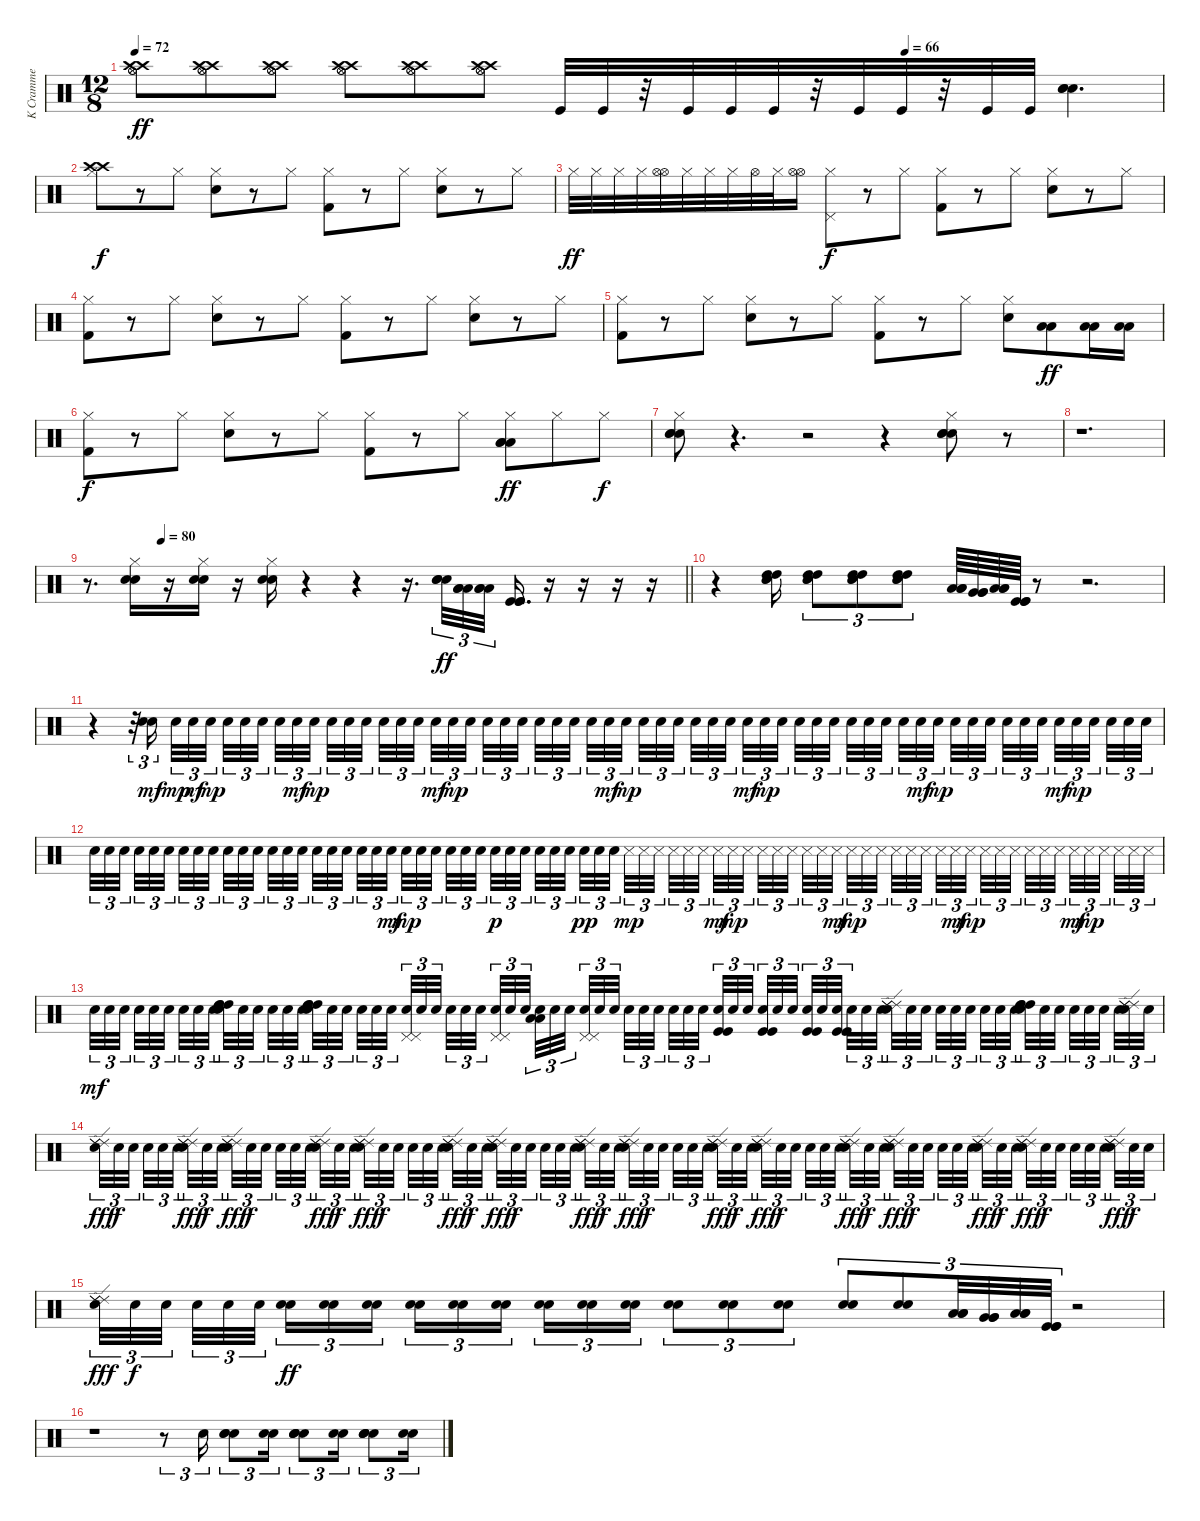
\track ("K Cramme" "K Cramme") {instrument percussion}
\staff {score}
\articulation defaults
\ts (12 8)
\tempo 72
\tempo (66 0.75)
\clef neutral
\ks c
("Crash high (hit)" "Crash high (hit)" "Hi-Hat (open)" "Hi-Hat (open)").8{dy ff} ("Crash high (hit)" "Crash high (hit)" "Hi-Hat (open)" "Hi-Hat (open)").8 ("Crash high (hit)" "Crash high (hit)" "Hi-Hat (open)" "Hi-Hat (open)").8 ("Crash high (hit)" "Crash high (hit)" "Hi-Hat (open)" "Hi-Hat (open)").8 ("Crash high (hit)" "Crash high (hit)" "Hi-Hat (open)" "Hi-Hat (open)").8 ("Crash high (hit)" "Crash high (hit)" "Hi-Hat (open)" "Hi-Hat (open)").8 "Kick (hit)".32 "Kick (hit)".32 r.32 "Kick (hit)".32 "Kick (hit)".32 "Kick (hit)".32 r.32 "Kick (hit)".32 "Kick (hit)".32 r.32 "Kick (hit)".32 "Kick (hit)".32 ("Snare (hit) 2" "Snare (hit) 2" "Snare (hit) 2").4{d} |
("Crash high (hit)" "Crash high (hit)" "Hi-Hat (closed)").8{dy f} r.8 "Hi-Hat (closed)".8 ("Snare (hit) 2" "Hi-Hat (closed)").8 r.8 "Hi-Hat (closed)".8 ("Kick (hit) 2" "Hi-Hat (closed)").8 r.8 "Hi-Hat (closed)".8 ("Snare (hit) 2" "Hi-Hat (closed)").8 r.8 "Hi-Hat (closed)".8 |
"Hi-Hat (closed)".32{dy ff} "Hi-Hat (closed)".32 "Hi-Hat (closed)".32 "Hi-Hat (closed)".32 ("Hi-Hat (open)" "Hi-Hat (open)").32 "Hi-Hat (closed)".32 "Hi-Hat (closed)".32 "Hi-Hat (closed)".32 "Hi-Hat (open)".32 "Hi-Hat (closed)".32 ("Hi-Hat (open)" "Hi-Hat (open)").16 ("Pedal Hi-Hat (hit)" "Hi-Hat (closed)").8{dy f} r.8 "Hi-Hat (closed)".8 ("Kick (hit) 2" "Hi-Hat (closed)").8 r.8 "Hi-Hat (closed)".8 ("Snare (hit) 2" "Hi-Hat (closed)").8 r.8 "Hi-Hat (closed)".8 |
("Kick (hit) 2" "Hi-Hat (closed)").8 r.8 "Hi-Hat (closed)".8 ("Snare (hit) 2" "Hi-Hat (closed)").8 r.8 "Hi-Hat (closed)".8 ("Kick (hit) 2" "Hi-Hat (closed)").8 r.8 "Hi-Hat (closed)".8 ("Snare (hit) 2" "Hi-Hat (closed)").8 r.8 "Hi-Hat (closed)".8 |
("Kick (hit) 2" "Hi-Hat (closed)").8 r.8 "Hi-Hat (closed)".8 ("Snare (hit) 2" "Hi-Hat (closed)").8 r.8 "Hi-Hat (closed)".8 ("Kick (hit) 2" "Hi-Hat (closed)").8 r.8 "Hi-Hat (closed)".8 ("Snare (hit) 2" "Hi-Hat (closed)").8 ("Low Tom (hit)" "Low Tom (hit)").8{dy ff} ("Low Tom (hit)" "Low Tom (hit)").16 ("Low Tom (hit)" "Low Tom (hit)").16 |
("Kick (hit) 2" "Hi-Hat (closed)").8{dy f} r.8 "Hi-Hat (closed)".8 ("Snare (hit) 2" "Hi-Hat (closed)").8 r.8 "Hi-Hat (closed)".8 ("Kick (hit) 2" "Hi-Hat (closed)").8 r.8 "Hi-Hat (closed)".8 ("Low Tom (hit)" "Low Tom (hit)" "Low Tom (hit)" "Hi-Hat (closed)").8{dy ff} "Hi-Hat (closed)".8 "Hi-Hat (closed)".8{dy f} |
("Snare (hit) 2" "Snare (hit) 2" "Snare (hit) 2" "Hi-Hat (closed)").8 r.4{d} r.2 r.4 ("Snare (hit) 2" "Snare (hit) 2" "Snare (hit) 2" "Hi-Hat (closed)").8 r.8 |
r.1{d} |
\tempo (80 0.125)
\barLineRight lightlight
r.8{d} ("Snare (hit) 2" "Snare (hit) 2" "Hi-Hat (closed)").16 r.16 ("Snare (hit) 2" "Snare (hit) 2" "Hi-Hat (closed)").16 r.16 ("Snare (hit) 2" "Snare (hit) 2" "Hi-Hat (closed)").16 r.4 r.4 r.16{d} ("Snare (hit) 2" "Snare (hit) 2" "Snare (hit) 2").32{tu (3 2) dy ff volume 16} ("Low Floor Tom (hit)" "Low Floor Tom (hit)" "Low Floor Tom (hit)").32{tu (3 2)} ("Low Floor Tom (hit)" "Low Floor Tom (hit)" "Low Floor Tom (hit)").32{tu (3 2)} ("Kick (hit)" "Kick (hit)" "Kick (hit)").16{d} r.16 r.16 r.16 r.16 |
r.4 ("High Tom (hit)" "High Tom (hit)" "Snare (hit) 2" "Snare (hit) 2").16 ("High Tom (hit)" "High Tom (hit)" "Snare (hit) 2" "Snare (hit) 2").8{tu (3 2)} ("High Tom (hit)" "High Tom (hit)" "Snare (hit) 2" "Snare (hit) 2").8{tu (3 2)} ("High Tom (hit)" "High Tom (hit)" "Snare (hit) 2" "Snare (hit) 2").8{tu (3 2)} ("Low Tom (hit)" "Low Tom (hit)" "Low Tom (hit)").64 ("Very Low Tom (hit)" "Very Low Tom (hit)" "Very Low Tom (hit)").64 ("Low Floor Tom (hit)" "Low Floor Tom (hit)" "Low Floor Tom (hit)").64 ("Kick (hit)" "Kick (hit)" "Kick (hit)").64 r.8 r.2{d} |
r.4 r.32{tu (3 2)} ("Snare (hit) 2" "Snare (hit) 2").16{tu (3 2) dy mf beam splitsecondary} "Snare (hit) 2".32{tu (3 2) dy mp} "Snare (hit) 2".32{tu (3 2) dy mf} "Snare (hit) 2".32{tu (3 2) dy mp} "Snare (hit) 2".32{tu (3 2)} "Snare (hit) 2".32{tu (3 2)} "Snare (hit) 2".32{tu (3 2) beam splitsecondary} "Snare (hit) 2".32{tu (3 2)} "Snare (hit) 2".32{tu (3 2) dy mf} "Snare (hit) 2".32{tu (3 2) dy mp beam splitsecondary} "Snare (hit) 2".32{tu (3 2)} "Snare (hit) 2".32{tu (3 2)} "Snare (hit) 2".32{tu (3 2) beam splitsecondary} "Snare (hit) 2".32{tu (3 2)} "Snare (hit) 2".32{tu (3 2)} "Snare (hit) 2".32{tu (3 2) beam splitsecondary} "Snare (hit) 2".32{tu (3 2) dy mf} "Snare (hit) 2".32{tu (3 2) dy mp} "Snare (hit) 2".32{tu (3 2) beam splitsecondary} "Snare (hit) 2".32{tu (3 2)} "Snare (hit) 2".32{tu (3 2)} "Snare (hit) 2".32{tu (3 2)} "Snare (hit) 2".32{tu (3 2)} "Snare (hit) 2".32{tu (3 2)} "Snare (hit) 2".32{tu (3 2) beam splitsecondary} "Snare (hit) 2".32{tu (3 2)} "Snare (hit) 2".32{tu (3 2) dy mf} "Snare (hit) 2".32{tu (3 2) dy mp beam splitsecondary} "Snare (hit) 2".32{tu (3 2)} "Snare (hit) 2".32{tu (3 2)} "Snare (hit) 2".32{tu (3 2) beam splitsecondary} "Snare (hit) 2".32{tu (3 2)} "Snare (hit) 2".32{tu (3 2)} "Snare (hit) 2".32{tu (3 2) beam splitsecondary} "Snare (hit) 2".32{tu (3 2) dy mf} "Snare (hit) 2".32{tu (3 2) dy mp} "Snare (hit) 2".32{tu (3 2) beam splitsecondary} "Snare (hit) 2".32{tu (3 2)} "Snare (hit) 2".32{tu (3 2)} "Snare (hit) 2".32{tu (3 2)} "Snare (hit) 2".32{tu (3 2)} "Snare (hit) 2".32{tu (3 2)} "Snare (hit) 2".32{tu (3 2) beam splitsecondary} "Snare (hit) 2".32{tu (3 2)} "Snare (hit) 2".32{tu (3 2) dy mf} "Snare (hit) 2".32{tu (3 2) dy mp beam splitsecondary} "Snare (hit) 2".32{tu (3 2)} "Snare (hit) 2".32{tu (3 2)} "Snare (hit) 2".32{tu (3 2) beam splitsecondary} "Snare (hit) 2".32{tu (3 2)} "Snare (hit) 2".32{tu (3 2)} "Snare (hit) 2".32{tu (3 2) beam splitsecondary} "Snare (hit) 2".32{tu (3 2) dy mf} "Snare (hit) 2".32{tu (3 2) dy mp} "Snare (hit) 2".32{tu (3 2) beam splitsecondary} "Snare (hit) 2".32{tu (3 2)} "Snare (hit) 2".32{tu (3 2)} "Snare (hit) 2".32{tu (3 2)} |
"Snare (hit) 2".32{tu (3 2)} "Snare (hit) 2".32{tu (3 2)} "Snare (hit) 2".32{tu (3 2) beam splitsecondary} "Snare (hit) 2".32{tu (3 2)} "Snare (hit) 2".32{tu (3 2)} "Snare (hit) 2".32{tu (3 2) beam splitsecondary} "Snare (hit) 2".32{tu (3 2)} "Snare (hit) 2".32{tu (3 2)} "Snare (hit) 2".32{tu (3 2) beam splitsecondary} "Snare (hit) 2".32{tu (3 2)} "Snare (hit) 2".32{tu (3 2)} "Snare (hit) 2".32{tu (3 2) beam splitsecondary} "Snare (hit) 2".32{tu (3 2)} "Snare (hit) 2".32{tu (3 2)} "Snare (hit) 2".32{tu (3 2) beam splitsecondary} "Snare (hit) 2".32{tu (3 2)} "Snare (hit) 2".32{tu (3 2)} "Snare (hit) 2".32{tu (3 2)} "Snare (hit) 2".32{tu (3 2)} "Snare (hit) 2".32{tu (3 2)} "Snare (hit) 2".32{tu (3 2) dy mf beam splitsecondary} "Snare (hit) 2".32{tu (3 2) dy mp} "Snare (hit) 2".32{tu (3 2)} "Snare (hit) 2".32{tu (3 2) beam splitsecondary} "Snare (hit) 2".32{tu (3 2)} "Snare (hit) 2".32{tu (3 2)} "Snare (hit) 2".32{tu (3 2) beam splitsecondary} "Snare (hit) 2".32{tu (3 2) dy p} "Snare (hit) 2".32{tu (3 2)} "Snare (hit) 2".32{tu (3 2) beam splitsecondary} "Snare (hit) 2".32{tu (3 2)} "Snare (hit) 2".32{tu (3 2)} "Snare (hit) 2".32{tu (3 2) beam splitsecondary} "Snare (hit) 2".32{tu (3 2) dy pp} "Snare (hit) 2".32{tu (3 2)} "Snare (hit) 2".32{tu (3 2)} "Snare (side stick) 3".32{tu (3 2) dy mp} "Snare (side stick) 3".32{tu (3 2)} "Snare (side stick) 3".32{tu (3 2) beam splitsecondary} "Snare (side stick) 3".32{tu (3 2)} "Snare (side stick) 3".32{tu (3 2)} "Snare (side stick) 3".32{tu (3 2) beam splitsecondary} "Snare (side stick) 3".32{tu (3 2) dy mf} "Snare (side stick) 3".32{tu (3 2) dy mp} "Snare (side stick) 3".32{tu (3 2) beam splitsecondary} "Snare (side stick) 3".32{tu (3 2)} "Snare (side stick) 3".32{tu (3 2)} "Snare (side stick) 3".32{tu (3 2) beam splitsecondary} "Snare (side stick) 3".32{tu (3 2)} "Snare (side stick) 3".32{tu (3 2)} "Snare (side stick) 3".32{tu (3 2) dy mf beam splitsecondary} "Snare (side stick) 3".32{tu (3 2) dy mp} "Snare (side stick) 3".32{tu (3 2)} "Snare (side stick) 3".32{tu (3 2)} "Snare (side stick) 3".32{tu (3 2)} "Snare (side stick) 3".32{tu (3 2)} "Snare (side stick) 3".32{tu (3 2) beam splitsecondary} "Snare (side stick) 3".32{tu (3 2)} "Snare (side stick) 3".32{tu (3 2) dy mf} "Snare (side stick) 3".32{tu (3 2) dy mp beam splitsecondary} "Snare (side stick) 3".32{tu (3 2)} "Snare (side stick) 3".32{tu (3 2)} "Snare (side stick) 3".32{tu (3 2) beam splitsecondary} "Snare (side stick) 3".32{tu (3 2)} "Snare (side stick) 3".32{tu (3 2)} "Snare (side stick) 3".32{tu (3 2) beam splitsecondary} "Snare (side stick) 3".32{tu (3 2) dy mf} "Snare (side stick) 3".32{tu (3 2) dy mp} "Snare (side stick) 3".32{tu (3 2) beam splitsecondary} "Snare (side stick) 3".32{tu (3 2)} "Snare (side stick) 3".32{tu (3 2)} "Snare (side stick) 3".32{tu (3 2)} |
"Snare (hit) 2".32{tu (3 2) dy mf} "Snare (hit) 2".32{tu (3 2)} "Snare (hit) 2".32{tu (3 2) beam splitsecondary} "Snare (hit) 2".32{tu (3 2)} "Snare (hit) 2".32{tu (3 2)} "Snare (hit) 2".32{tu (3 2) beam splitsecondary} "Snare (hit) 2".32{tu (3 2)} "Snare (hit) 2".32{tu (3 2)} "Snare (hit) 2".32{tu (3 2) beam splitsecondary} ("High Tom (hit)" "High Tom (hit)" "High Tom (hit)" "Snare (hit) 2").32{tu (3 2)} "Snare (hit) 2".32{tu (3 2)} "Snare (hit) 2".32{tu (3 2) beam splitsecondary} "Snare (hit) 2".32{tu (3 2)} "Snare (hit) 2".32{tu (3 2)} "Snare (hit) 2".32{tu (3 2) beam splitsecondary} ("High Tom (hit)" "High Tom (hit)" "High Tom (hit)" "Snare (hit) 2").32{tu (3 2)} "Snare (hit) 2".32{tu (3 2)} "Snare (hit) 2".32{tu (3 2)} "Snare (hit) 2".32{tu (3 2)} "Snare (hit) 2".32{tu (3 2)} "Snare (hit) 2".32{tu (3 2) beam splitsecondary} ("Pedal Hi-Hat (hit)" "Pedal Hi-Hat (hit)" "Snare (hit) 2").32{tu (3 2)} "Snare (hit) 2".32{tu (3 2)} "Snare (hit) 2".32{tu (3 2) beam splitsecondary} "Snare (hit) 2".32{tu (3 2)} "Snare (hit) 2".32{tu (3 2)} "Snare (hit) 2".32{tu (3 2) beam splitsecondary} ("Pedal Hi-Hat (hit)" "Pedal Hi-Hat (hit)" "Snare (hit) 2").32{tu (3 2)} "Snare (hit) 2".32{tu (3 2)} "Snare (hit) 2".32{tu (3 2) beam splitsecondary} ("Low Tom (hit)" "Low Tom (hit)" "Snare (hit) 2").32{tu (3 2)} "Snare (hit) 2".32{tu (3 2)} "Snare (hit) 2".32{tu (3 2) beam splitsecondary} ("Pedal Hi-Hat (hit)" "Pedal Hi-Hat (hit)" "Snare (hit) 2").32{tu (3 2)} "Snare (hit) 2".32{tu (3 2)} "Snare (hit) 2".32{tu (3 2)} "Snare (hit) 2".32{tu (3 2)} "Snare (hit) 2".32{tu (3 2)} "Snare (hit) 2".32{tu (3 2) beam splitsecondary} "Snare (hit) 2".32{tu (3 2)} "Snare (hit) 2".32{tu (3 2)} "Snare (hit) 2".32{tu (3 2) beam splitsecondary} ("Kick (hit)" "Kick (hit)" "Snare (hit) 2").32{tu (3 2)} "Snare (hit) 2".32{tu (3 2)} "Snare (hit) 2".32{tu (3 2) beam splitsecondary} ("Kick (hit)" "Kick (hit)" "Snare (hit) 2").32{tu (3 2)} "Snare (hit) 2".32{tu (3 2)} "Snare (hit) 2".32{tu (3 2) beam splitsecondary} ("Kick (hit)" "Kick (hit)" "Snare (hit) 2").32{tu (3 2)} "Snare (hit) 2".32{tu (3 2)} ("Kick (hit)" "Kick (hit)" "Snare (hit) 2").32{tu (3 2) beam splitsecondary} "Snare (hit) 2".32{tu (3 2)} "Snare (hit) 2".32{tu (3 2)} "Snare (hit) 2".32{tu (3 2)} ("Ride (edge) 2" "Ride (edge) 2" "Ride (edge) 2" "Snare (hit) 2").32{tu (3 2)} "Snare (hit) 2".32{tu (3 2)} "Snare (hit) 2".32{tu (3 2) beam splitsecondary} "Snare (hit) 2".32{tu (3 2)} "Snare (hit) 2".32{tu (3 2)} "Snare (hit) 2".32{tu (3 2) beam splitsecondary} "Snare (hit) 2".32{tu (3 2)} "Snare (hit) 2".32{tu (3 2)} "Snare (hit) 2".32{tu (3 2) beam splitsecondary} ("High Tom (hit)" "High Tom (hit)" "High Tom (hit)" "Snare (hit) 2").32{tu (3 2)} "Snare (hit) 2".32{tu (3 2)} "Snare (hit) 2".32{tu (3 2) beam splitsecondary} "Snare (hit) 2".32{tu (3 2)} "Snare (hit) 2".32{tu (3 2)} "Snare (hit) 2".32{tu (3 2) beam splitsecondary} "Snare (hit) 2".32{tu (3 2)} ("Ride (edge) 2" "Ride (edge) 2" "Ride (edge) 2" "Snare (hit) 2").32{tu (3 2)} "Snare (hit) 2".32{tu (3 2)} |
("Ride (edge) 2" "Ride (edge) 2" "Ride (edge) 2" "Snare (hit) 2").32{tu (3 2) dy fff} "Snare (hit) 2".32{tu (3 2) dy f} "Snare (hit) 2".32{tu (3 2) beam splitsecondary} "Snare (hit) 2".32{tu (3 2)} "Snare (hit) 2".32{tu (3 2)} "Snare (hit) 2".32{tu (3 2) beam splitsecondary} ("Ride (edge) 2" "Ride (edge) 2" "Ride (edge) 2" "Snare (hit) 2").32{tu (3 2) dy fff} "Snare (hit) 2".32{tu (3 2) dy f} "Snare (hit) 2".32{tu (3 2) beam splitsecondary} ("Ride (edge) 2" "Ride (edge) 2" "Ride (edge) 2" "Snare (hit) 2").32{tu (3 2) dy fff} "Snare (hit) 2".32{tu (3 2) dy f} "Snare (hit) 2".32{tu (3 2) beam splitsecondary} "Snare (hit) 2".32{tu (3 2)} "Snare (hit) 2".32{tu (3 2)} "Snare (hit) 2".32{tu (3 2) beam splitsecondary} ("Ride (edge) 2" "Ride (edge) 2" "Ride (edge) 2" "Snare (hit) 2").32{tu (3 2) dy fff} "Snare (hit) 2".32{tu (3 2) dy f} "Snare (hit) 2".32{tu (3 2)} ("Ride (edge) 2" "Ride (edge) 2" "Ride (edge) 2" "Snare (hit) 2").32{tu (3 2) dy fff} "Snare (hit) 2".32{tu (3 2) dy f} "Snare (hit) 2".32{tu (3 2) beam splitsecondary} "Snare (hit) 2".32{tu (3 2)} "Snare (hit) 2".32{tu (3 2)} "Snare (hit) 2".32{tu (3 2) beam splitsecondary} ("Ride (edge) 2" "Ride (edge) 2" "Ride (edge) 2" "Snare (hit) 2").32{tu (3 2) dy fff} "Snare (hit) 2".32{tu (3 2) dy f} "Snare (hit) 2".32{tu (3 2) beam splitsecondary} ("Ride (edge) 2" "Ride (edge) 2" "Ride (edge) 2" "Snare (hit) 2").32{tu (3 2) dy fff} "Snare (hit) 2".32{tu (3 2) dy f} "Snare (hit) 2".32{tu (3 2) beam splitsecondary} "Snare (hit) 2".32{tu (3 2)} "Snare (hit) 2".32{tu (3 2)} "Snare (hit) 2".32{tu (3 2) beam splitsecondary} ("Ride (edge) 2" "Ride (edge) 2" "Ride (edge) 2" "Snare (hit) 2").32{tu (3 2) dy fff} "Snare (hit) 2".32{tu (3 2) dy f} "Snare (hit) 2".32{tu (3 2)} ("Ride (edge) 2" "Ride (edge) 2" "Ride (edge) 2" "Snare (hit) 2").32{tu (3 2) dy fff} "Snare (hit) 2".32{tu (3 2) dy f} "Snare (hit) 2".32{tu (3 2) beam splitsecondary} "Snare (hit) 2".32{tu (3 2)} "Snare (hit) 2".32{tu (3 2)} "Snare (hit) 2".32{tu (3 2) beam splitsecondary} ("Ride (edge) 2" "Ride (edge) 2" "Ride (edge) 2" "Snare (hit) 2").32{tu (3 2) dy fff} "Snare (hit) 2".32{tu (3 2) dy f} "Snare (hit) 2".32{tu (3 2) beam splitsecondary} ("Ride (edge) 2" "Ride (edge) 2" "Ride (edge) 2" "Snare (hit) 2").32{tu (3 2) dy fff} "Snare (hit) 2".32{tu (3 2) dy f} "Snare (hit) 2".32{tu (3 2) beam splitsecondary} "Snare (hit) 2".32{tu (3 2)} "Snare (hit) 2".32{tu (3 2)} "Snare (hit) 2".32{tu (3 2) beam splitsecondary} ("Ride (edge) 2" "Ride (edge) 2" "Ride (edge) 2" "Snare (hit) 2").32{tu (3 2) dy fff} "Snare (hit) 2".32{tu (3 2) dy f} "Snare (hit) 2".32{tu (3 2)} ("Ride (edge) 2" "Ride (edge) 2" "Ride (edge) 2" "Snare (hit) 2").32{tu (3 2) dy fff} "Snare (hit) 2".32{tu (3 2) dy f} "Snare (hit) 2".32{tu (3 2) beam splitsecondary} "Snare (hit) 2".32{tu (3 2)} "Snare (hit) 2".32{tu (3 2)} "Snare (hit) 2".32{tu (3 2) beam splitsecondary} ("Ride (edge) 2" "Ride (edge) 2" "Ride (edge) 2" "Snare (hit) 2").32{tu (3 2) dy fff} "Snare (hit) 2".32{tu (3 2) dy f} "Snare (hit) 2".32{tu (3 2) beam splitsecondary} ("Ride (edge) 2" "Ride (edge) 2" "Ride (edge) 2" "Snare (hit) 2").32{tu (3 2) dy fff} "Snare (hit) 2".32{tu (3 2) dy f} "Snare (hit) 2".32{tu (3 2) beam splitsecondary} "Snare (hit) 2".32{tu (3 2)} "Snare (hit) 2".32{tu (3 2)} "Snare (hit) 2".32{tu (3 2) beam splitsecondary} ("Ride (edge) 2" "Ride (edge) 2" "Ride (edge) 2" "Snare (hit) 2").32{tu (3 2) dy fff} "Snare (hit) 2".32{tu (3 2) dy f} "Snare (hit) 2".32{tu (3 2)} |
("Ride (edge) 2" "Ride (edge) 2" "Ride (edge) 2" "Snare (hit) 2").32{tu (3 2) dy fff} "Snare (hit) 2".32{tu (3 2) dy f} "Snare (hit) 2".32{tu (3 2) beam splitsecondary} "Snare (hit) 2".32{tu (3 2)} "Snare (hit) 2".32{tu (3 2)} "Snare (hit) 2".32{tu (3 2) beam splitsecondary} ("Snare (hit) 2" "Snare (hit) 2").16{tu (3 2) dy ff} ("Snare (hit) 2" "Snare (hit) 2").16{tu (3 2)} ("Snare (hit) 2" "Snare (hit) 2").16{tu (3 2) beam splitsecondary} ("Snare (hit) 2" "Snare (hit) 2").16{tu (3 2)} ("Snare (hit) 2" "Snare (hit) 2").16{tu (3 2)} ("Snare (hit) 2" "Snare (hit) 2").16{tu (3 2)} ("Snare (hit) 2" "Snare (hit) 2").16{tu (3 2)} ("Snare (hit) 2" "Snare (hit) 2").16{tu (3 2)} ("Snare (hit) 2" "Snare (hit) 2").16{tu (3 2)} ("Snare (hit) 2" "Snare (hit) 2").8{tu (3 2)} ("Snare (hit) 2" "Snare (hit) 2").8{tu (3 2)} ("Snare (hit) 2" "Snare (hit) 2").8{tu (3 2)} ("Snare (hit) 2" "Snare (hit) 2").8{tu (3 2)} ("Snare (hit) 2" "Snare (hit) 2").8{tu (3 2)} ("Low Tom (hit)" "Low Tom (hit)" "Low Tom (hit)").32{tu (3 2)} ("Very Low Tom (hit)" "Very Low Tom (hit)" "Very Low Tom (hit)").32{tu (3 2)} ("Low Floor Tom (hit)" "Low Floor Tom (hit)" "Low Floor Tom (hit)").32{tu (3 2)} ("Kick (hit)" "Kick (hit)" "Kick (hit)").32{tu (3 2)} r.2 |
r.1 r.8{tu (3 2)} "Snare (hit) 2".16{tu (3 2)} ("Snare (hit) 2" "Snare (hit) 2" "Snare (hit) 2").8{tu (3 2)} ("Snare (hit) 2" "Snare (hit) 2").16{tu (3 2)} ("Snare (hit) 2" "Snare (hit) 2" "Snare (hit) 2" "Snare (hit) 2").8{tu (3 2)} ("Snare (hit) 2" "Snare (hit) 2").16{tu (3 2)} ("Snare (hit) 2" "Snare (hit) 2" "Snare (hit) 2" "Snare (hit) 2").8{tu (3 2)} ("Snare (hit) 2" "Snare (hit) 2").16{tu (3 2)}
